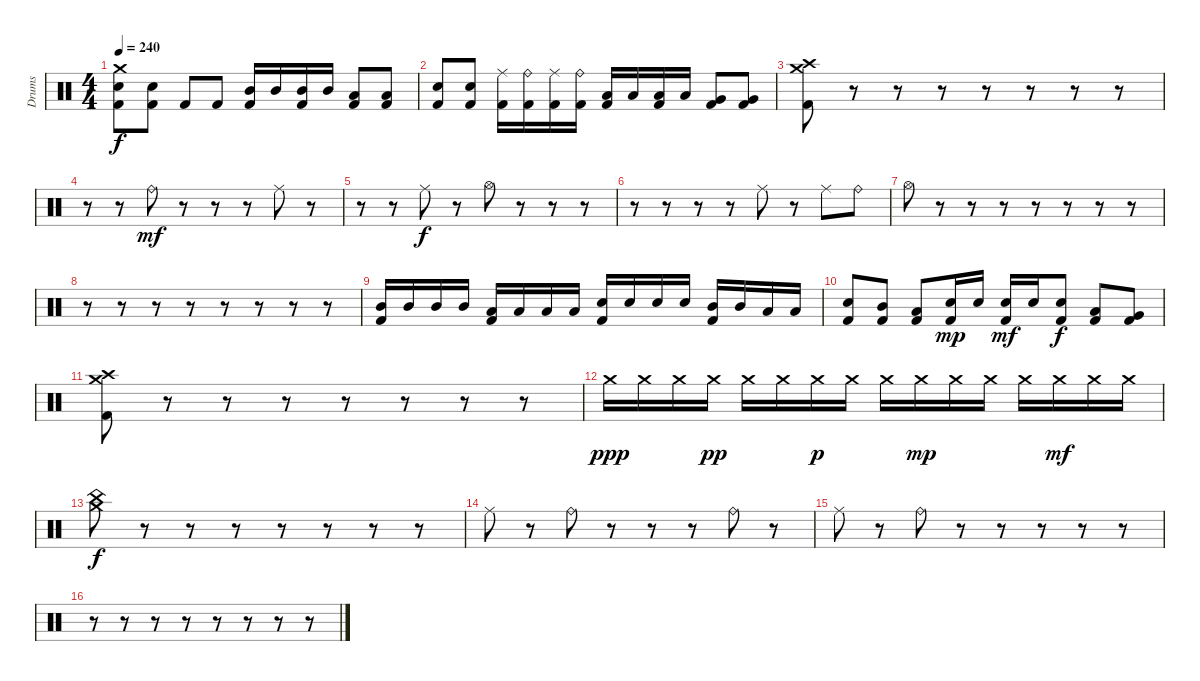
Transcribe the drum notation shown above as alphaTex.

\track ("Drums" "Drums") {instrument percussion}
\staff {score}
\articulation defaults
\ts (4 4)
\tempo 240
\clef neutral
\ks c
("Crash medium (hit)" "Electric Snare (hit)" "Kick (hit) 2").8{dy f} ("Electric Snare (hit)" "Kick (hit) 2").8 "Kick (hit) 2".8 "Kick (hit) 2".8 ("Mid Tom (hit)" "Kick (hit) 2").16 "Mid Tom (hit)".16 ("Mid Tom (hit)" "Kick (hit) 2").16 "Mid Tom (hit)".16 ("Low Tom (hit)" "Kick (hit) 2").8 ("Low Tom (hit)" "Kick (hit) 2").8 |
("Electric Snare (hit)" "Kick (hit) 2").8 ("Electric Snare (hit)" "Kick (hit) 2").8 ("Ride (middle)" "Kick (hit) 2").16 ("Ride (bell)" "Kick (hit) 2").16 ("Ride (middle)" "Kick (hit) 2").16 ("Ride (bell)" "Kick (hit) 2").16 ("Low Tom (hit)" "Kick (hit) 2").16 "Low Tom (hit)".16 ("Low Tom (hit)" "Kick (hit) 2").16 "Low Tom (hit)".16 ("Very Low Tom (hit)" "Kick (hit) 2").8 ("Very Low Tom (hit)" "Kick (hit) 2").8 |
("Crash medium (hit)" "Crash high (hit)" "Kick (hit) 2").8 r.8 r.8 r.8 r.8 r.8 r.8 r.8 |
r.8 r.8 "Ride (bell)".8{dy mf} r.8 r.8 r.8 "Ride (middle)".8 r.8 |
r.8 r.8 "Ride (middle)".8{dy f} r.8 "Hi-Hat (open)".8 r.8 r.8 r.8 |
r.8 r.8 r.8 r.8 "Ride (middle)".8 r.8 "Ride (middle)".8 "Ride (bell)".8 |
"Hi-Hat (open)".8 r.8 r.8 r.8 r.8 r.8 r.8 r.8 |
r.8 r.8 r.8 r.8 r.8 r.8 r.8 r.8 |
("Mid Tom (hit)" "Kick (hit) 2").16 "Mid Tom (hit)".16 "Mid Tom (hit)".16 "Mid Tom (hit)".16 ("Low Tom (hit)" "Kick (hit) 2").16 "Low Tom (hit)".16 "Low Tom (hit)".16 "Low Tom (hit)".16 ("Electric Snare (hit)" "Kick (hit) 2").16 "Electric Snare (hit)".16 "Electric Snare (hit)".16 "Electric Snare (hit)".16 ("Mid Tom (hit)" "Kick (hit) 2").16 "Mid Tom (hit)".16 "Low Tom (hit)".16 "Low Tom (hit)".16 |
("Electric Snare (hit)" "Kick (hit) 2").8 ("Mid Tom (hit)" "Kick (hit) 2").8 ("Low Tom (hit)" "Kick (hit) 2").8 ("Electric Snare (hit)" "Kick (hit) 2").16{dy mp} "Electric Snare (hit)".16 ("Electric Snare (hit)" "Kick (hit) 2").16{dy mf} "Electric Snare (hit)".16 ("Electric Snare (hit)" "Kick (hit) 2").8{dy f} ("Low Tom (hit)" "Kick (hit) 2").8 ("Very Low Tom (hit)" "Kick (hit) 2").8 |
("Crash medium (hit)" "Crash high (hit)" "Kick (hit) 2").8 r.8 r.8 r.8 r.8 r.8 r.8 r.8 |
"Crash medium (hit)".16{dy ppp} "Crash medium (hit)".16 "Crash medium (hit)".16 "Crash medium (hit)".16{dy pp} "Crash medium (hit)".16 "Crash medium (hit)".16 "Crash medium (hit)".16{dy p} "Crash medium (hit)".16 "Crash medium (hit)".16 "Crash medium (hit)".16{dy mp} "Crash medium (hit)".16 "Crash medium (hit)".16 "Crash medium (hit)".16 "Crash medium (hit)".16{dy mf} "Crash medium (hit)".16 "Crash medium (hit)".16 |
("Crash medium (hit)" "China (hit)").8{dy f} r.8 r.8 r.8 r.8 r.8 r.8 r.8 |
"Ride (middle)".8 r.8 "Ride (bell)".8 r.8 r.8 r.8 "Ride (bell)".8 r.8 |
"Ride (middle)".8 r.8 "Ride (bell)".8 r.8 r.8 r.8 r.8 r.8 |
r.8 r.8 r.8 r.8 r.8 r.8 r.8 r.8
